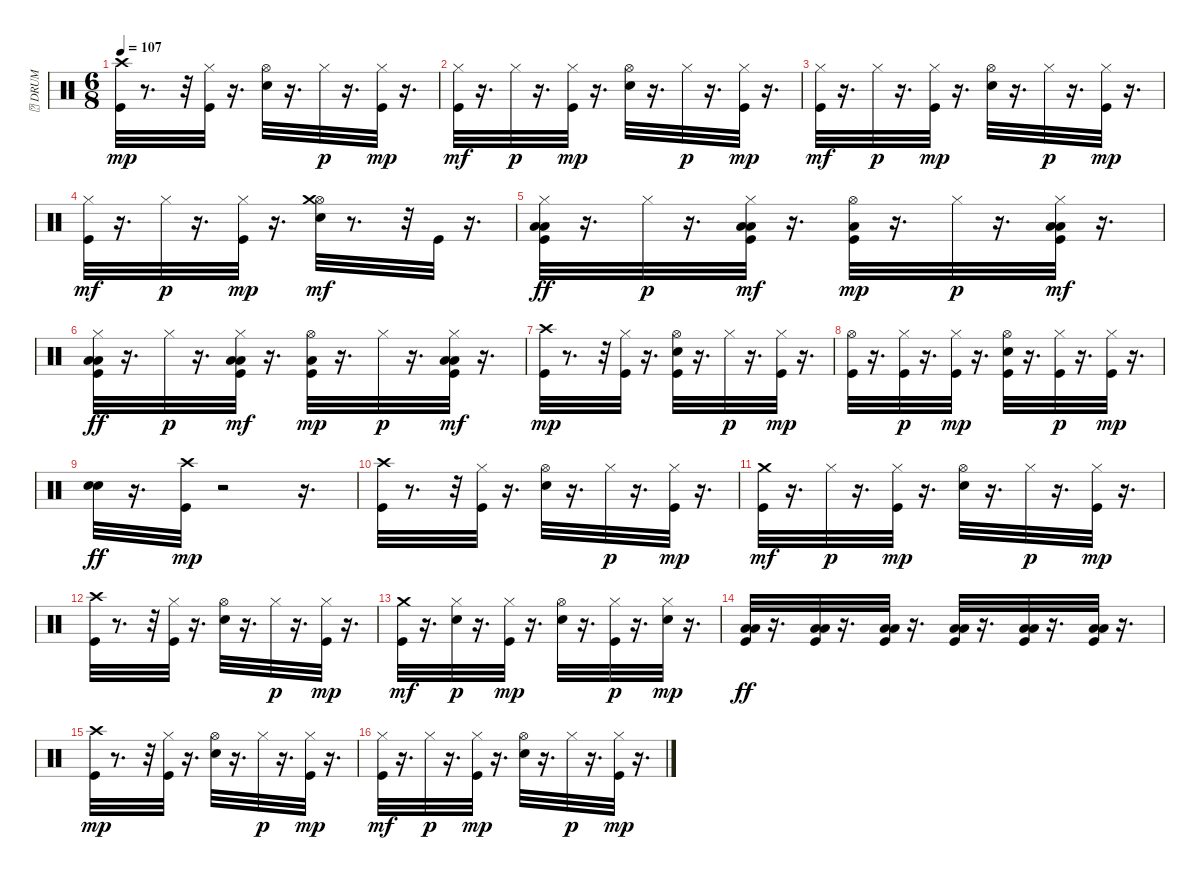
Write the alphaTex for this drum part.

\track ("\t DRUM" "\t DRUM") {instrument percussion}
\staff {score}
\articulation defaults
\ts (6 8)
\tempo 107
\clef neutral
\ks c
("Kick (hit)" "Crash high (hit)").32{dy mp} r.8{d} r.32 ("Kick (hit)" "Hi-Hat (closed)").32 r.16{d} ("Electric Snare (hit)" "Hi-Hat (open)").32 r.16{d} "Hi-Hat (closed)".32{dy p} r.16{d} ("Kick (hit)" "Hi-Hat (closed)").32{dy mp} r.16{d} |
("Kick (hit)" "Hi-Hat (closed)").32{dy mf} r.16{d} "Hi-Hat (closed)".32{dy p} r.16{d} ("Kick (hit)" "Hi-Hat (closed)").32{dy mp} r.16{d} ("Electric Snare (hit)" "Hi-Hat (open)").32 r.16{d} "Hi-Hat (closed)".32{dy p} r.16{d} ("Kick (hit)" "Hi-Hat (closed)").32{dy mp} r.16{d} |
("Kick (hit)" "Hi-Hat (closed)").32{dy mf} r.16{d} "Hi-Hat (closed)".32{dy p} r.16{d} ("Kick (hit)" "Hi-Hat (closed)").32{dy mp} r.16{d} ("Electric Snare (hit)" "Hi-Hat (open)").32 r.16{d} "Hi-Hat (closed)".32{dy p} r.16{d} ("Kick (hit)" "Hi-Hat (closed)").32{dy mp} r.16{d} |
("Kick (hit)" "Hi-Hat (closed)").32{dy mf} r.16{d} "Hi-Hat (closed)".32{dy p} r.16{d} ("Kick (hit)" "Hi-Hat (closed)").32{dy mp} r.16{d} ("Electric Snare (hit)" "Hi-Hat (open)" "Crash medium (hit)").32{dy mf} r.8{d} r.32 "Kick (hit)".32 r.16{d} |
("Kick (hit)" "Low Floor Tom (hit)" "Hi-Hat (closed)" "Low Tom (hit)").32{dy ff} r.16{d} "Hi-Hat (closed)".32{dy p} r.16{d} ("Kick (hit)" "Low Floor Tom (hit)" "Hi-Hat (closed)" "Low Tom (hit)").32{dy mf} r.16{d} ("Kick (hit)" "Low Floor Tom (hit)" "Hi-Hat (open)").32{dy mp} r.16{d} "Hi-Hat (closed)".32{dy p} r.16{d} ("Kick (hit)" "Low Floor Tom (hit)" "Hi-Hat (closed)" "Low Tom (hit)").32{dy mf} r.16{d} |
("Kick (hit)" "Low Floor Tom (hit)" "Hi-Hat (closed)" "Low Tom (hit)").32{dy ff} r.16{d} "Hi-Hat (closed)".32{dy p} r.16{d} ("Kick (hit)" "Low Floor Tom (hit)" "Hi-Hat (closed)" "Low Tom (hit)").32{dy mf} r.16{d} ("Kick (hit)" "Low Floor Tom (hit)" "Hi-Hat (open)").32{dy mp} r.16{d} "Hi-Hat (closed)".32{dy p} r.16{d} ("Kick (hit)" "Low Floor Tom (hit)" "Hi-Hat (closed)" "Low Tom (hit)").32{dy mf} r.16{d} |
("Kick (hit)" "Crash high (hit)").32{dy mp} r.8{d} r.32 ("Kick (hit)" "Hi-Hat (closed)").32 r.16{d} ("Kick (hit)" "Electric Snare (hit)" "Hi-Hat (open)").32 r.16{d} "Hi-Hat (closed)".32{dy p} r.16{d} ("Kick (hit)" "Hi-Hat (closed)").32{dy mp} r.16{d} |
("Kick (hit)" "Hi-Hat (open)").32 r.16{d} ("Kick (hit)" "Hi-Hat (closed)").32{dy p} r.16{d} ("Kick (hit)" "Hi-Hat (closed)").32{dy mp} r.16{d} ("Kick (hit)" "Electric Snare (hit)" "Hi-Hat (open)").32 r.16{d} ("Kick (hit)" "Hi-Hat (closed)").32{dy p} r.16{d} ("Kick (hit)" "Hi-Hat (closed)").32{dy mp} r.16{d} |
("Electric Snare (hit)" "Electric Snare (hit)").32{dy ff} r.16{d} ("Kick (hit)" "Crash high (hit)").32{dy mp} r.2 r.16{d} |
("Kick (hit)" "Crash high (hit)").32 r.8{d} r.32 ("Kick (hit)" "Hi-Hat (closed)").32 r.16{d} ("Electric Snare (hit)" "Hi-Hat (open)").32 r.16{d} "Hi-Hat (closed)".32{dy p} r.16{d} ("Kick (hit)" "Hi-Hat (closed)").32{dy mp} r.16{d} |
("Kick (hit)" "Crash medium (hit)").32{dy mf} r.16{d} "Hi-Hat (closed)".32{dy p} r.16{d} ("Kick (hit)" "Hi-Hat (closed)").32{dy mp} r.16{d} ("Electric Snare (hit)" "Hi-Hat (open)").32 r.16{d} "Hi-Hat (closed)".32{dy p} r.16{d} ("Kick (hit)" "Hi-Hat (closed)").32{dy mp} r.16{d} |
("Kick (hit)" "Crash high (hit)").32 r.8{d} r.32 ("Kick (hit)" "Hi-Hat (closed)").32 r.16{d} ("Electric Snare (hit)" "Hi-Hat (open)").32 r.16{d} "Hi-Hat (closed)".32{dy p} r.16{d} ("Kick (hit)" "Hi-Hat (closed)").32{dy mp} r.16{d} |
("Kick (hit)" "Crash medium (hit)").32{dy mf} r.16{d} ("Electric Snare (hit)" "Hi-Hat (closed)").32{dy p} r.16{d} ("Kick (hit)" "Hi-Hat (closed)").32{dy mp} r.16{d} ("Electric Snare (hit)" "Hi-Hat (open)").32 r.16{d} ("Kick (hit)" "Hi-Hat (closed)").32{dy p} r.16{d} ("Electric Snare (hit)" "Hi-Hat (closed)").32{dy mp} r.16{d} |
("Kick (hit)" "Low Floor Tom (hit)" "Low Tom (hit)").32{dy ff} r.16{d} ("Kick (hit)" "Low Floor Tom (hit)" "Low Tom (hit)").32 r.16{d} ("Kick (hit)" "Low Floor Tom (hit)" "Low Tom (hit)").32 r.16{d} ("Kick (hit)" "Low Floor Tom (hit)" "Low Tom (hit)").32 r.16{d} ("Kick (hit)" "Low Floor Tom (hit)" "Low Tom (hit)").32 r.16{d} ("Kick (hit)" "Low Floor Tom (hit)" "Low Tom (hit)").32 r.16{d} |
("Kick (hit)" "Crash high (hit)").32{dy mp} r.8{d} r.32 ("Kick (hit)" "Hi-Hat (closed)").32 r.16{d} ("Electric Snare (hit)" "Hi-Hat (open)").32 r.16{d} "Hi-Hat (closed)".32{dy p} r.16{d} ("Kick (hit)" "Hi-Hat (closed)").32{dy mp} r.16{d} |
("Kick (hit)" "Hi-Hat (closed)").32{dy mf} r.16{d} "Hi-Hat (closed)".32{dy p} r.16{d} ("Kick (hit)" "Hi-Hat (closed)").32{dy mp} r.16{d} ("Electric Snare (hit)" "Hi-Hat (open)").32 r.16{d} "Hi-Hat (closed)".32{dy p} r.16{d} ("Kick (hit)" "Hi-Hat (closed)").32{dy mp} r.16{d}
